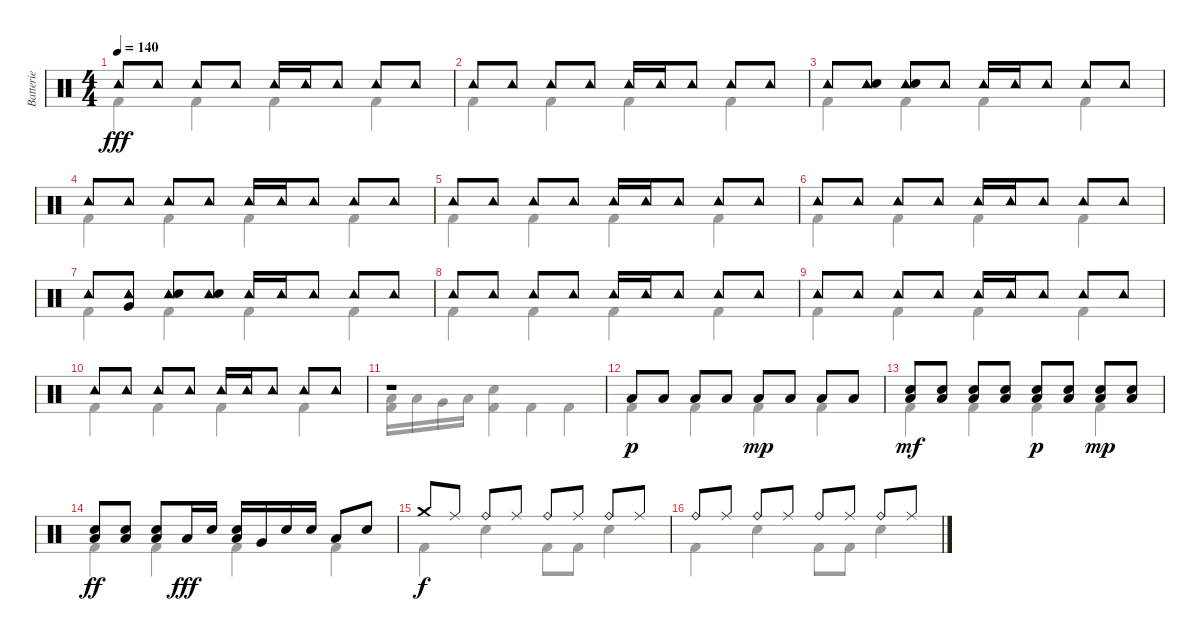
\track ("Batterie" "Batterie") {instrument percussion}
\staff {score}
\articulation defaults
\voice
\ts (4 4)
\tempo 140
\clef neutral
\ks c "Tambourine (hit)".8{dy fff} "Tambourine (hit)".8 "Tambourine (hit)".8 "Tambourine (hit)".8 "Tambourine (hit)".16 "Tambourine (hit)".16 "Tambourine (hit)".8 "Tambourine (hit)".8 "Tambourine (hit)".8
|
"Tambourine (hit)".8 "Tambourine (hit)".8 "Tambourine (hit)".8 "Tambourine (hit)".8 "Tambourine (hit)".16 "Tambourine (hit)".16 "Tambourine (hit)".8 "Tambourine (hit)".8 "Tambourine (hit)".8 |
"Tambourine (hit)".8 ("Tambourine (hit)" "Electric Snare (hit)").8 ("Tambourine (hit)" "Electric Snare (hit)").8 "Tambourine (hit)".8 "Tambourine (hit)".16 "Tambourine (hit)".16 "Tambourine (hit)".8 "Tambourine (hit)".8 "Tambourine (hit)".8 |
"Tambourine (hit)".8 "Tambourine (hit)".8 "Tambourine (hit)".8 "Tambourine (hit)".8 "Tambourine (hit)".16 "Tambourine (hit)".16 "Tambourine (hit)".8 "Tambourine (hit)".8 "Tambourine (hit)".8 |
"Tambourine (hit)".8 "Tambourine (hit)".8 "Tambourine (hit)".8 "Tambourine (hit)".8 "Tambourine (hit)".16 "Tambourine (hit)".16 "Tambourine (hit)".8 "Tambourine (hit)".8 "Tambourine (hit)".8 |
"Tambourine (hit)".8 "Tambourine (hit)".8 "Tambourine (hit)".8 "Tambourine (hit)".8 "Tambourine (hit)".16 "Tambourine (hit)".16 "Tambourine (hit)".8 "Tambourine (hit)".8 "Tambourine (hit)".8 |
"Tambourine (hit)".8 ("Tambourine (hit)" "Very Low Tom (hit)").8 ("Tambourine (hit)" "Electric Snare (hit)").8 ("Tambourine (hit)" "Electric Snare (hit)").8 "Tambourine (hit)".16 "Tambourine (hit)".16 "Tambourine (hit)".8 "Tambourine (hit)".8 "Tambourine (hit)".8 |
"Tambourine (hit)".8 "Tambourine (hit)".8 "Tambourine (hit)".8 "Tambourine (hit)".8 "Tambourine (hit)".16 "Tambourine (hit)".16 "Tambourine (hit)".8 "Tambourine (hit)".8 "Tambourine (hit)".8 |
"Tambourine (hit)".8 "Tambourine (hit)".8 "Tambourine (hit)".8 "Tambourine (hit)".8 "Tambourine (hit)".16 "Tambourine (hit)".16 "Tambourine (hit)".8 "Tambourine (hit)".8 "Tambourine (hit)".8 |
"Tambourine (hit)".8 "Tambourine (hit)".8 "Tambourine (hit)".8 "Tambourine (hit)".8 "Tambourine (hit)".16 "Tambourine (hit)".16 "Tambourine (hit)".8 "Tambourine (hit)".8 "Tambourine (hit)".8 |
r.1 |
"Low Floor Tom (hit)".8{dy p} "Low Floor Tom (hit)".8 "Low Floor Tom (hit)".8 "Low Floor Tom (hit)".8 "Low Floor Tom (hit)".8{dy mp} "Low Floor Tom (hit)".8 "Low Floor Tom (hit)".8 "Low Floor Tom (hit)".8 |
("Electric Snare (hit)" "Low Floor Tom (hit)").8{dy mf} ("Electric Snare (hit)" "Low Floor Tom (hit)").8 ("Electric Snare (hit)" "Low Floor Tom (hit)").8 ("Electric Snare (hit)" "Low Floor Tom (hit)").8 ("Electric Snare (hit)" "Low Floor Tom (hit)").8{dy p} ("Electric Snare (hit)" "Low Floor Tom (hit)").8 ("Electric Snare (hit)" "Low Floor Tom (hit)").8{dy mp} ("Electric Snare (hit)" "Low Floor Tom (hit)").8 |
("Electric Snare (hit)" "Low Floor Tom (hit)").8{dy ff} ("Electric Snare (hit)" "Low Floor Tom (hit)").8 ("Electric Snare (hit)" "Low Floor Tom (hit)").8 "Low Tom (hit)".16{dy fff} "Electric Snare (hit)".16 ("Electric Snare (hit)" "Low Floor Tom (hit)").16 "Very Low Tom (hit)".16 "Electric Snare (hit)".16 "Electric Snare (hit)".16 "Low Floor Tom (hit)".8 "Electric Snare (hit)".8 |
"Crash medium (hit)".8{dy f} "Ride (middle)".8 "Ride (bell)".8 "Ride (middle)".8 "Ride (bell)".8 "Ride (middle)".8 "Ride (bell)".8 "Ride (middle)".8 |
"Ride (bell)".8 "Ride (middle)".8 "Ride (bell)".8 "Ride (middle)".8 "Ride (bell)".8 "Ride (middle)".8 "Ride (bell)".8 "Ride (middle)".8
\voice
\clef neutral
\ottava regular
\simile none
\ks c "Kick (hit) 2".4{dy fff} "Kick (hit) 2".4 "Kick (hit) 2".4 "Kick (hit) 2".4
|
"Kick (hit) 2".4 "Kick (hit) 2".4 "Kick (hit) 2".4 "Kick (hit) 2".4 |
"Kick (hit) 2".4 "Kick (hit) 2".4 "Kick (hit) 2".4 "Kick (hit) 2".4 |
"Kick (hit) 2".4 "Kick (hit) 2".4 "Kick (hit) 2".4 "Kick (hit) 2".4 |
"Kick (hit) 2".4 "Kick (hit) 2".4 "Kick (hit) 2".4 "Kick (hit) 2".4 |
"Kick (hit) 2".4 "Kick (hit) 2".4 "Kick (hit) 2".4 "Kick (hit) 2".4 |
"Kick (hit) 2".4 "Kick (hit) 2".4 "Kick (hit) 2".4 "Kick (hit) 2".4 |
"Kick (hit) 2".4 "Kick (hit) 2".4 "Kick (hit) 2".4 "Kick (hit) 2".4 |
"Kick (hit) 2".4 "Kick (hit) 2".4 "Kick (hit) 2".4 "Kick (hit) 2".4 |
"Kick (hit) 2".4 "Kick (hit) 2".4 "Kick (hit) 2".4 "Kick (hit) 2".4 |
("Low Tom (hit)" "Kick (hit) 2").16 "Low Tom (hit)".16 "Very Low Tom (hit)".16 "Low Floor Tom (hit)".16 ("Electric Snare (hit)" "Kick (hit) 2").4 "Kick (hit) 2".4 "Kick (hit) 2".4 |
"Kick (hit) 2".4 "Kick (hit) 2".4 "Kick (hit) 2".4 "Kick (hit) 2".4 |
"Kick (hit) 2".4 "Kick (hit) 2".4 "Kick (hit) 2".4 "Kick (hit) 2".4 |
"Kick (hit) 2".4 "Kick (hit) 2".4 "Kick (hit) 2".4 "Kick (hit) 2".4 |
"Kick (hit) 2".4{dy f} "Electric Snare (hit)".4 "Kick (hit) 2".8 "Kick (hit) 2".8 "Electric Snare (hit)".4 |
"Kick (hit) 2".4 "Electric Snare (hit)".4 "Kick (hit) 2".8 "Kick (hit) 2".8 "Electric Snare (hit)".4
